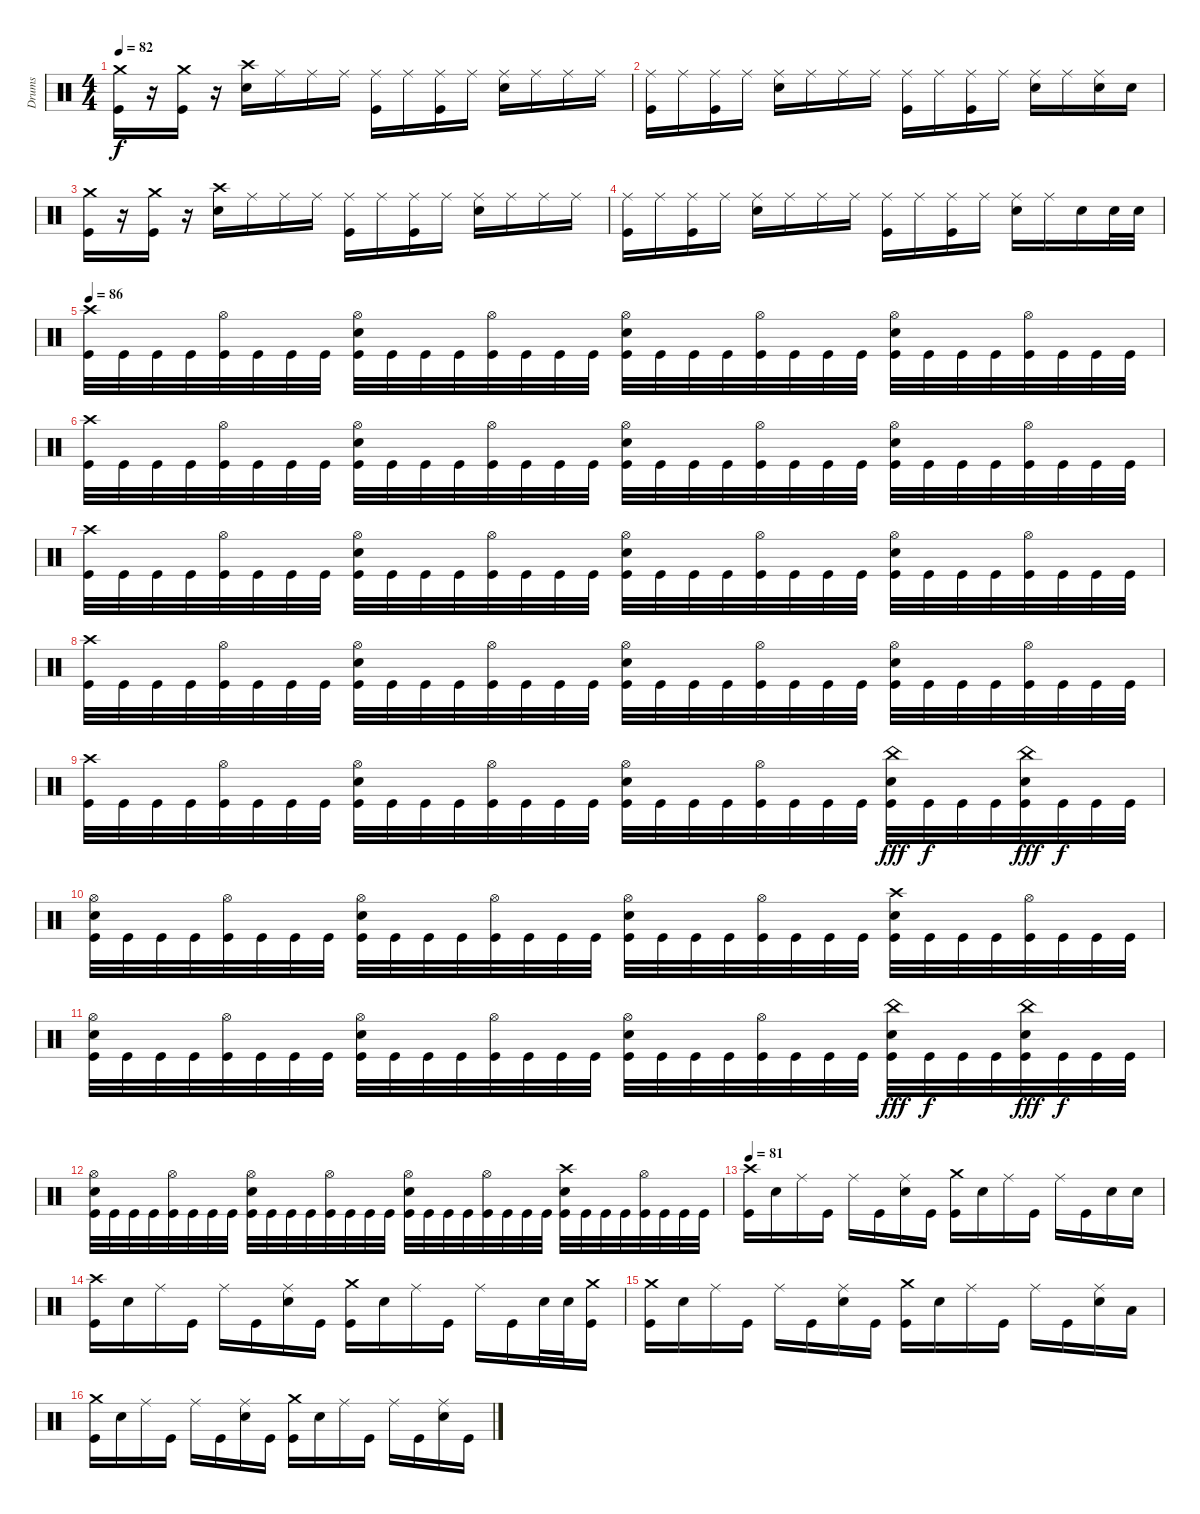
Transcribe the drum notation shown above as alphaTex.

\track ("Drums" "Drums") {instrument percussion}
\staff {score}
\articulation defaults
\ts (4 4)
\section ("" "")
\tempo 82
\clef neutral
\ks c
("Crash medium (hit)" "Kick (hit)").16{dy f} r.16 ("Crash medium (hit)" "Kick (hit)").16 r.16 ("Crash high (hit)" "Snare (hit) 2").16 "Ride (middle)".16 "Ride (middle)".16 "Ride (middle)".16 ("Ride (middle)" "Kick (hit)").16 "Ride (middle)".16 ("Ride (middle)" "Kick (hit)").16 "Ride (middle)".16 ("Ride (middle)" "Snare (hit) 2").16 "Ride (middle)".16 "Ride (middle)".16 "Ride (middle)".16 |
("Ride (middle)" "Kick (hit)").16 "Ride (middle)".16 ("Ride (middle)" "Kick (hit)").16 "Ride (middle)".16 ("Ride (middle)" "Snare (hit) 2").16 "Ride (middle)".16 "Ride (middle)".16 "Ride (middle)".16 ("Ride (middle)" "Kick (hit)").16 "Ride (middle)".16 ("Ride (middle)" "Kick (hit)").16 "Ride (middle)".16 ("Ride (middle)" "Snare (hit) 2").16 "Ride (middle)".16 ("Ride (middle)" "Snare (hit) 2").16 "Snare (hit) 2".16 |
("Crash medium (hit)" "Kick (hit)").16 r.16 ("Crash medium (hit)" "Kick (hit)").16 r.16 ("Crash high (hit)" "Snare (hit) 2").16 "Ride (middle)".16 "Ride (middle)".16 "Ride (middle)".16 ("Ride (middle)" "Kick (hit)").16 "Ride (middle)".16 ("Ride (middle)" "Kick (hit)").16 "Ride (middle)".16 ("Ride (middle)" "Snare (hit) 2").16 "Ride (middle)".16 "Ride (middle)".16 "Ride (middle)".16 |
("Ride (middle)" "Kick (hit)").16 "Ride (middle)".16 ("Ride (middle)" "Kick (hit)").16 "Ride (middle)".16 ("Ride (middle)" "Snare (hit) 2").16 "Ride (middle)".16 "Ride (middle)".16 "Ride (middle)".16 ("Ride (middle)" "Kick (hit)").16 "Ride (middle)".16 ("Ride (middle)" "Kick (hit)").16 "Ride (middle)".16 ("Ride (middle)" "Snare (hit) 2").16 "Ride (middle)".16 "Snare (hit) 2".16 "Snare (hit) 2".32 "Snare (hit) 2".32 |
\tempo 86
("Crash high (hit)" "Kick (hit)").32 "Kick (hit)".32 "Kick (hit)".32 "Kick (hit)".32 ("Hi-Hat (open)" "Kick (hit)").32 "Kick (hit)".32 "Kick (hit)".32 "Kick (hit)".32 ("Hi-Hat (open)" "Snare (hit) 2" "Kick (hit)").32 "Kick (hit)".32 "Kick (hit)".32 "Kick (hit)".32 ("Hi-Hat (open)" "Kick (hit)").32 "Kick (hit)".32 "Kick (hit)".32 "Kick (hit)".32 ("Hi-Hat (open)" "Snare (hit) 2" "Kick (hit)").32 "Kick (hit)".32 "Kick (hit)".32 "Kick (hit)".32 ("Hi-Hat (open)" "Kick (hit)").32 "Kick (hit)".32 "Kick (hit)".32 "Kick (hit)".32 ("Hi-Hat (open)" "Snare (hit) 2" "Kick (hit)").32 "Kick (hit)".32 "Kick (hit)".32 "Kick (hit)".32 ("Hi-Hat (open)" "Kick (hit)").32 "Kick (hit)".32 "Kick (hit)".32 "Kick (hit)".32 |
("Crash high (hit)" "Kick (hit)").32 "Kick (hit)".32 "Kick (hit)".32 "Kick (hit)".32 ("Hi-Hat (open)" "Kick (hit)").32 "Kick (hit)".32 "Kick (hit)".32 "Kick (hit)".32 ("Hi-Hat (open)" "Snare (hit) 2" "Kick (hit)").32 "Kick (hit)".32 "Kick (hit)".32 "Kick (hit)".32 ("Hi-Hat (open)" "Kick (hit)").32 "Kick (hit)".32 "Kick (hit)".32 "Kick (hit)".32 ("Hi-Hat (open)" "Snare (hit) 2" "Kick (hit)").32 "Kick (hit)".32 "Kick (hit)".32 "Kick (hit)".32 ("Hi-Hat (open)" "Kick (hit)").32 "Kick (hit)".32 "Kick (hit)".32 "Kick (hit)".32 ("Hi-Hat (open)" "Snare (hit) 2" "Kick (hit)").32 "Kick (hit)".32 "Kick (hit)".32 "Kick (hit)".32 ("Hi-Hat (open)" "Kick (hit)").32 "Kick (hit)".32 "Kick (hit)".32 "Kick (hit)".32 |
("Crash high (hit)" "Kick (hit)").32 "Kick (hit)".32 "Kick (hit)".32 "Kick (hit)".32 ("Hi-Hat (open)" "Kick (hit)").32 "Kick (hit)".32 "Kick (hit)".32 "Kick (hit)".32 ("Hi-Hat (open)" "Snare (hit) 2" "Kick (hit)").32 "Kick (hit)".32 "Kick (hit)".32 "Kick (hit)".32 ("Hi-Hat (open)" "Kick (hit)").32 "Kick (hit)".32 "Kick (hit)".32 "Kick (hit)".32 ("Hi-Hat (open)" "Snare (hit) 2" "Kick (hit)").32 "Kick (hit)".32 "Kick (hit)".32 "Kick (hit)".32 ("Hi-Hat (open)" "Kick (hit)").32 "Kick (hit)".32 "Kick (hit)".32 "Kick (hit)".32 ("Hi-Hat (open)" "Snare (hit) 2" "Kick (hit)").32 "Kick (hit)".32 "Kick (hit)".32 "Kick (hit)".32 ("Hi-Hat (open)" "Kick (hit)").32 "Kick (hit)".32 "Kick (hit)".32 "Kick (hit)".32 |
("Crash high (hit)" "Kick (hit)").32 "Kick (hit)".32 "Kick (hit)".32 "Kick (hit)".32 ("Hi-Hat (open)" "Kick (hit)").32 "Kick (hit)".32 "Kick (hit)".32 "Kick (hit)".32 ("Hi-Hat (open)" "Snare (hit) 2" "Kick (hit)").32 "Kick (hit)".32 "Kick (hit)".32 "Kick (hit)".32 ("Hi-Hat (open)" "Kick (hit)").32 "Kick (hit)".32 "Kick (hit)".32 "Kick (hit)".32 ("Hi-Hat (open)" "Snare (hit) 2" "Kick (hit)").32 "Kick (hit)".32 "Kick (hit)".32 "Kick (hit)".32 ("Hi-Hat (open)" "Kick (hit)").32 "Kick (hit)".32 "Kick (hit)".32 "Kick (hit)".32 ("Hi-Hat (open)" "Snare (hit) 2" "Kick (hit)").32 "Kick (hit)".32 "Kick (hit)".32 "Kick (hit)".32 ("Hi-Hat (open)" "Kick (hit)").32 "Kick (hit)".32 "Kick (hit)".32 "Kick (hit)".32 |
("Crash high (hit)" "Kick (hit)").32 "Kick (hit)".32 "Kick (hit)".32 "Kick (hit)".32 ("Hi-Hat (open)" "Kick (hit)").32 "Kick (hit)".32 "Kick (hit)".32 "Kick (hit)".32 ("Hi-Hat (open)" "Snare (hit) 2" "Kick (hit)").32 "Kick (hit)".32 "Kick (hit)".32 "Kick (hit)".32 ("Hi-Hat (open)" "Kick (hit)").32 "Kick (hit)".32 "Kick (hit)".32 "Kick (hit)".32 ("Hi-Hat (open)" "Snare (hit) 2" "Kick (hit)").32 "Kick (hit)".32 "Kick (hit)".32 "Kick (hit)".32 ("Hi-Hat (open)" "Kick (hit)").32 "Kick (hit)".32 "Kick (hit)".32 "Kick (hit)".32 ("China (hit)" "Snare (hit) 2" "Kick (hit)").32{dy fff} "Kick (hit)".32{dy f} "Kick (hit)".32 "Kick (hit)".32 ("China (hit)" "Snare (hit) 2" "Kick (hit)").32{dy fff} "Kick (hit)".32{dy f} "Kick (hit)".32 "Kick (hit)".32 |
("Hi-Hat (open)" "Snare (hit) 2" "Kick (hit)").32 "Kick (hit)".32 "Kick (hit)".32 "Kick (hit)".32 ("Hi-Hat (open)" "Kick (hit)").32 "Kick (hit)".32 "Kick (hit)".32 "Kick (hit)".32 ("Hi-Hat (open)" "Snare (hit) 2" "Kick (hit)").32 "Kick (hit)".32 "Kick (hit)".32 "Kick (hit)".32 ("Hi-Hat (open)" "Kick (hit)").32 "Kick (hit)".32 "Kick (hit)".32 "Kick (hit)".32 ("Hi-Hat (open)" "Snare (hit) 2" "Kick (hit)").32 "Kick (hit)".32 "Kick (hit)".32 "Kick (hit)".32 ("Hi-Hat (open)" "Kick (hit)").32 "Kick (hit)".32 "Kick (hit)".32 "Kick (hit)".32 ("Crash high (hit)" "Snare (hit) 2" "Kick (hit)").32 "Kick (hit)".32 "Kick (hit)".32 "Kick (hit)".32 ("Hi-Hat (open)" "Kick (hit)").32 "Kick (hit)".32 "Kick (hit)".32 "Kick (hit)".32 |
("Hi-Hat (open)" "Snare (hit) 2" "Kick (hit)").32 "Kick (hit)".32 "Kick (hit)".32 "Kick (hit)".32 ("Hi-Hat (open)" "Kick (hit)").32 "Kick (hit)".32 "Kick (hit)".32 "Kick (hit)".32 ("Hi-Hat (open)" "Snare (hit) 2" "Kick (hit)").32 "Kick (hit)".32 "Kick (hit)".32 "Kick (hit)".32 ("Hi-Hat (open)" "Kick (hit)").32 "Kick (hit)".32 "Kick (hit)".32 "Kick (hit)".32 ("Hi-Hat (open)" "Snare (hit) 2" "Kick (hit)").32 "Kick (hit)".32 "Kick (hit)".32 "Kick (hit)".32 ("Hi-Hat (open)" "Kick (hit)").32 "Kick (hit)".32 "Kick (hit)".32 "Kick (hit)".32 ("China (hit)" "Snare (hit) 2" "Kick (hit)").32{dy fff} "Kick (hit)".32{dy f} "Kick (hit)".32 "Kick (hit)".32 ("China (hit)" "Snare (hit) 2" "Kick (hit)").32{dy fff} "Kick (hit)".32{dy f} "Kick (hit)".32 "Kick (hit)".32 |
("Hi-Hat (open)" "Snare (hit) 2" "Kick (hit)").32 "Kick (hit)".32 "Kick (hit)".32 "Kick (hit)".32 ("Hi-Hat (open)" "Kick (hit)").32 "Kick (hit)".32 "Kick (hit)".32 "Kick (hit)".32 ("Hi-Hat (open)" "Snare (hit) 2" "Kick (hit)").32 "Kick (hit)".32 "Kick (hit)".32 "Kick (hit)".32 ("Hi-Hat (open)" "Kick (hit)").32 "Kick (hit)".32 "Kick (hit)".32 "Kick (hit)".32 ("Hi-Hat (open)" "Snare (hit) 2" "Kick (hit)").32 "Kick (hit)".32 "Kick (hit)".32 "Kick (hit)".32 ("Hi-Hat (open)" "Kick (hit)").32 "Kick (hit)".32 "Kick (hit)".32 "Kick (hit)".32 ("Crash high (hit)" "Snare (hit) 2" "Kick (hit)").32 "Kick (hit)".32 "Kick (hit)".32 "Kick (hit)".32 ("Hi-Hat (open)" "Kick (hit)").32 "Kick (hit)".32 "Kick (hit)".32 "Kick (hit)".32 |
\tempo 81
("Crash high (hit)" "Kick (hit)").16 "Snare (hit) 2".16 "Ride (middle)".16 "Kick (hit)".16 "Ride (middle)".16 "Kick (hit)".16 ("Ride (middle)" "Snare (hit) 2").16 "Kick (hit)".16 ("Crash medium (hit)" "Kick (hit)").16 "Snare (hit) 2".16 "Ride (middle)".16 "Kick (hit)".16 "Ride (middle)".16 "Kick (hit)".16 "Snare (hit) 2".16 "Snare (hit) 2".16 |
("Crash high (hit)" "Kick (hit)").16 "Snare (hit) 2".16 "Ride (middle)".16 "Kick (hit)".16 "Ride (middle)".16 "Kick (hit)".16 ("Ride (middle)" "Snare (hit) 2").16 "Kick (hit)".16 ("Crash medium (hit)" "Kick (hit)").16 "Snare (hit) 2".16 "Ride (middle)".16 "Kick (hit)".16 "Ride (middle)".16 "Kick (hit)".16 "Snare (hit) 2".32 "Snare (hit) 2".32 ("Crash medium (hit)" "Kick (hit)").16 |
("Crash medium (hit)" "Kick (hit)").16 "Snare (hit) 2".16 "Ride (middle)".16 "Kick (hit)".16 "Ride (middle)".16 "Kick (hit)".16 ("Ride (middle)" "Snare (hit) 2").16 "Kick (hit)".16 ("Crash medium (hit)" "Kick (hit)").16 "Snare (hit) 2".16 "Ride (middle)".16 "Kick (hit)".16 "Ride (middle)".16 "Kick (hit)".16 ("Ride (middle)" "Snare (hit) 2").16 "Low Tom (hit)".16 |
("Crash medium (hit)" "Kick (hit)").16 "Snare (hit) 2".16 "Ride (middle)".16 "Kick (hit)".16 "Ride (middle)".16 "Kick (hit)".16 ("Ride (middle)" "Snare (hit) 2").16 "Kick (hit)".16 ("Crash medium (hit)" "Kick (hit)").16 "Snare (hit) 2".16 "Ride (middle)".16 "Kick (hit)".16 "Ride (middle)".16 "Kick (hit)".16 ("Ride (middle)" "Snare (hit) 2").16 "Kick (hit)".16
